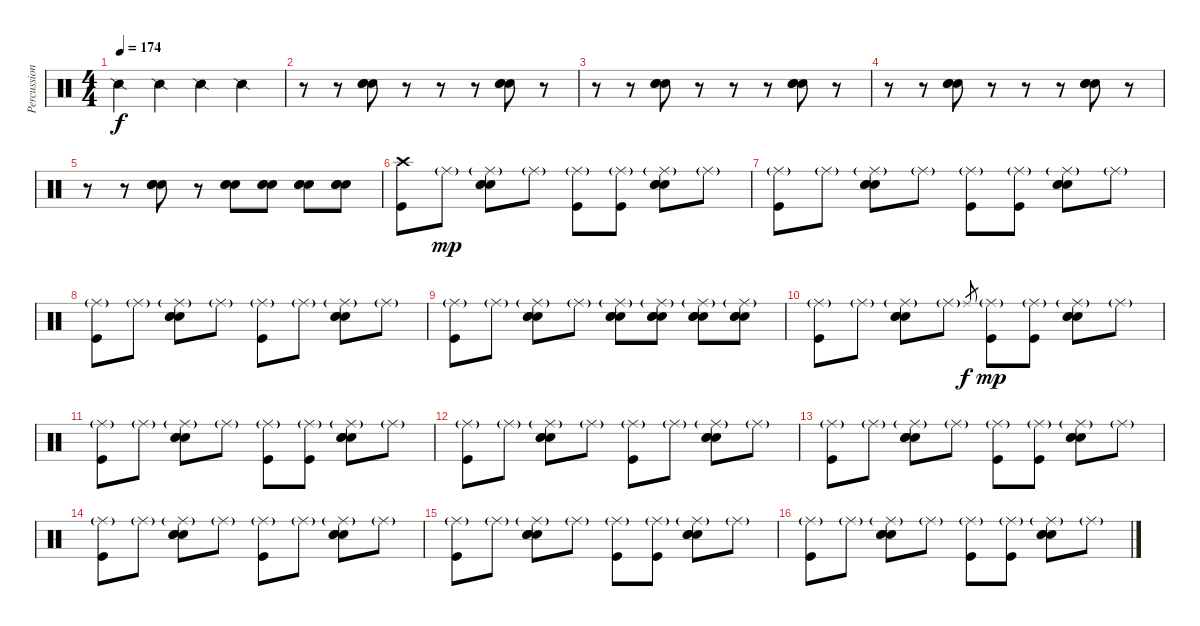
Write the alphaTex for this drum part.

\track ("Percussion" "Percussion") {instrument percussion}
\staff {score}
\articulation defaults
\ts (4 4)
\tempo 174
\clef neutral
\ks c "Snare (side stick) 2".4{dy f} "Snare (side stick) 2".4 "Snare (side stick) 2".4 "Snare (side stick) 2".4
|
r.8 r.8 ("Electric Snare (hit)" "Electric Snare (hit)" "Snare (hit) 2").8 r.8 r.8 r.8 ("Electric Snare (hit)" "Electric Snare (hit)" "Snare (hit) 2").8 r.8 |
r.8 r.8 ("Electric Snare (hit)" "Electric Snare (hit)" "Snare (hit) 2").8 r.8 r.8 r.8 ("Electric Snare (hit)" "Electric Snare (hit)" "Snare (hit) 2").8 r.8 |
r.8 r.8 ("Electric Snare (hit)" "Electric Snare (hit)" "Snare (hit) 2").8 r.8 r.8 r.8 ("Electric Snare (hit)" "Electric Snare (hit)" "Snare (hit) 2").8 r.8 |
r.8 r.8 ("Snare (hit) 2" "Electric Snare (hit)" "Electric Snare (hit)").8 r.8 ("Snare (hit) 2" "Electric Snare (hit)" "Electric Snare (hit)").8 ("Snare (hit) 2" "Electric Snare (hit)" "Electric Snare (hit)").8 ("Snare (hit) 2" "Electric Snare (hit)" "Electric Snare (hit)").8 ("Snare (hit) 2" "Electric Snare (hit)" "Electric Snare (hit)").8 |
("Crash high (hit)" "Kick (hit)").8 "Ride (middle)"{g}.8{dy mp} ("Ride (middle)"{g} "Snare (hit) 2" "Electric Snare (hit)" "Electric Snare (hit)").8 "Ride (middle)"{g}.8 ("Ride (middle)"{g} "Kick (hit)").8 ("Ride (middle)"{g} "Kick (hit)").8 ("Ride (middle)"{g} "Snare (hit) 2" "Electric Snare (hit)" "Electric Snare (hit)").8 "Ride (middle)"{g}.8 |
("Ride (middle)"{g} "Kick (hit)").8 "Ride (middle)"{g}.8 ("Ride (middle)"{g} "Snare (hit) 2" "Electric Snare (hit)" "Electric Snare (hit)").8 "Ride (middle)"{g}.8 ("Ride (middle)"{g} "Kick (hit)").8 ("Ride (middle)"{g} "Kick (hit)").8 ("Ride (middle)"{g} "Snare (hit) 2" "Electric Snare (hit)" "Electric Snare (hit)").8 "Ride (middle)"{g}.8 |
("Ride (middle)"{g} "Kick (hit)").8 "Ride (middle)"{g}.8 ("Ride (middle)"{g} "Snare (hit) 2" "Electric Snare (hit)" "Electric Snare (hit)").8 "Ride (middle)"{g}.8 ("Ride (middle)"{g} "Kick (hit)").8 "Ride (middle)"{g}.8 ("Ride (middle)"{g} "Snare (hit) 2" "Electric Snare (hit)" "Electric Snare (hit)").8 "Ride (middle)"{g}.8 |
("Ride (middle)"{g} "Kick (hit)").8 "Ride (middle)"{g}.8 ("Ride (middle)"{g} "Snare (hit) 2" "Electric Snare (hit)" "Electric Snare (hit)").8 "Ride (middle)"{g}.8 ("Ride (middle)"{g} "Snare (hit) 2" "Electric Snare (hit)" "Electric Snare (hit)").8 ("Ride (middle)"{g} "Snare (hit) 2" "Electric Snare (hit)" "Electric Snare (hit)").8 ("Ride (middle)"{g} "Snare (hit) 2" "Electric Snare (hit)" "Electric Snare (hit)").8 ("Ride (middle)"{g} "Snare (hit) 2" "Electric Snare (hit)" "Electric Snare (hit)").8 |
("Ride (middle)"{g} "Kick (hit)").8 "Ride (middle)"{g}.8 ("Ride (middle)"{g} "Snare (hit) 2" "Electric Snare (hit)" "Electric Snare (hit)").8 "Ride (middle)"{g}.8 "Ride (middle)".8{gr dy f} ("Ride (middle)"{g} "Kick (hit)").8{dy mp} ("Ride (middle)"{g} "Kick (hit)").8 ("Ride (middle)"{g} "Snare (hit) 2" "Electric Snare (hit)" "Electric Snare (hit)").8 "Ride (middle)"{g}.8 |
("Ride (middle)"{g} "Kick (hit)").8 "Ride (middle)"{g}.8 ("Ride (middle)"{g} "Snare (hit) 2" "Electric Snare (hit)" "Electric Snare (hit)").8 "Ride (middle)"{g}.8 ("Ride (middle)"{g} "Kick (hit)").8 ("Ride (middle)"{g} "Kick (hit)").8 ("Ride (middle)"{g} "Snare (hit) 2" "Electric Snare (hit)" "Electric Snare (hit)").8 "Ride (middle)"{g}.8 |
("Ride (middle)"{g} "Kick (hit)").8 "Ride (middle)"{g}.8 ("Ride (middle)"{g} "Snare (hit) 2" "Electric Snare (hit)" "Electric Snare (hit)").8 "Ride (middle)"{g}.8 ("Ride (middle)"{g} "Kick (hit)").8 "Ride (middle)"{g}.8 ("Ride (middle)"{g} "Snare (hit) 2" "Electric Snare (hit)" "Electric Snare (hit)").8 "Ride (middle)"{g}.8 |
("Ride (middle)"{g} "Kick (hit)").8 "Ride (middle)"{g}.8 ("Ride (middle)"{g} "Snare (hit) 2" "Electric Snare (hit)" "Electric Snare (hit)").8 "Ride (middle)"{g}.8 ("Ride (middle)"{g} "Kick (hit)").8 ("Ride (middle)"{g} "Kick (hit)").8 ("Ride (middle)"{g} "Snare (hit) 2" "Electric Snare (hit)" "Electric Snare (hit)").8 "Ride (middle)"{g}.8 |
("Ride (middle)"{g} "Kick (hit)").8 "Ride (middle)"{g}.8 ("Ride (middle)"{g} "Snare (hit) 2" "Electric Snare (hit)" "Electric Snare (hit)").8 "Ride (middle)"{g}.8 ("Ride (middle)"{g} "Kick (hit)").8 "Ride (middle)"{g}.8 ("Ride (middle)"{g} "Snare (hit) 2" "Electric Snare (hit)" "Electric Snare (hit)").8 "Ride (middle)"{g}.8 |
("Ride (middle)"{g} "Kick (hit)").8 "Ride (middle)"{g}.8 ("Ride (middle)"{g} "Snare (hit) 2" "Electric Snare (hit)" "Electric Snare (hit)").8 "Ride (middle)"{g}.8 ("Ride (middle)"{g} "Kick (hit)").8 ("Ride (middle)"{g} "Kick (hit)").8 ("Ride (middle)"{g} "Snare (hit) 2" "Electric Snare (hit)" "Electric Snare (hit)").8 "Ride (middle)"{g}.8 |
("Ride (middle)"{g} "Kick (hit)").8 "Ride (middle)"{g}.8 ("Ride (middle)"{g} "Snare (hit) 2" "Electric Snare (hit)" "Electric Snare (hit)").8 "Ride (middle)"{g}.8 ("Ride (middle)"{g} "Kick (hit)").8 ("Ride (middle)"{g} "Kick (hit)").8 ("Ride (middle)"{g} "Snare (hit) 2" "Electric Snare (hit)" "Electric Snare (hit)").8 "Ride (middle)"{g}.8
